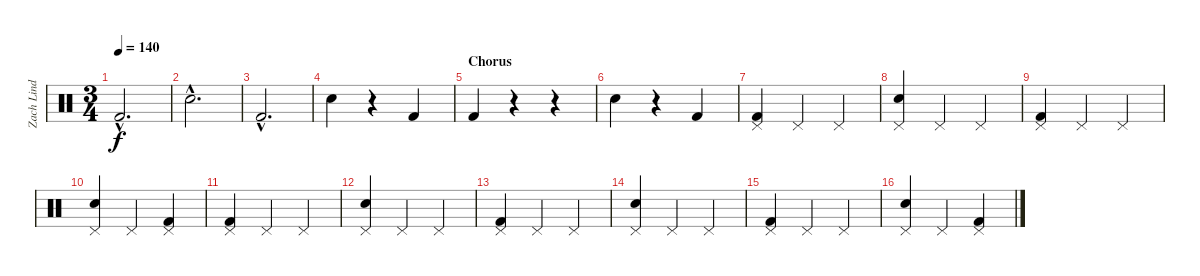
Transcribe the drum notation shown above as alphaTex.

\track ("Zach Lind - Drums" "Zach Lind ") {instrument percussion}
\staff {score}
\articulation defaults
\ts (3 4)
\tempo 140
\clef neutral
\ks c "Kick (hit) 2"{hac}.2{d dy f}
|
"Electric Snare (hit)"{hac}.2{d} |
"Kick (hit) 2"{hac}.2{d} |
"Electric Snare (hit)".4 r.4 "Kick (hit) 2".4 |
\section ("" "Chorus")
"Kick (hit) 2".4 r.4 r.4 |
"Electric Snare (hit)".4 r.4 "Kick (hit) 2".4 |
("Pedal Hi-Hat (hit)" "Kick (hit) 2").4 "Pedal Hi-Hat (hit)".4 "Pedal Hi-Hat (hit)".4 |
("Pedal Hi-Hat (hit)" "Electric Snare (hit)").4 "Pedal Hi-Hat (hit)".4 "Pedal Hi-Hat (hit)".4 |
("Pedal Hi-Hat (hit)" "Kick (hit) 2").4 "Pedal Hi-Hat (hit)".4 "Pedal Hi-Hat (hit)".4 |
("Pedal Hi-Hat (hit)" "Electric Snare (hit)").4 "Pedal Hi-Hat (hit)".4 ("Pedal Hi-Hat (hit)" "Kick (hit) 2").4 |
("Pedal Hi-Hat (hit)" "Kick (hit) 2").4 "Pedal Hi-Hat (hit)".4 "Pedal Hi-Hat (hit)".4 |
("Pedal Hi-Hat (hit)" "Electric Snare (hit)").4 "Pedal Hi-Hat (hit)".4 "Pedal Hi-Hat (hit)".4 |
("Pedal Hi-Hat (hit)" "Kick (hit) 2").4 "Pedal Hi-Hat (hit)".4 "Pedal Hi-Hat (hit)".4 |
("Pedal Hi-Hat (hit)" "Electric Snare (hit)").4 "Pedal Hi-Hat (hit)".4 "Pedal Hi-Hat (hit)".4 |
("Pedal Hi-Hat (hit)" "Kick (hit) 2").4 "Pedal Hi-Hat (hit)".4 "Pedal Hi-Hat (hit)".4 |
("Pedal Hi-Hat (hit)" "Electric Snare (hit)").4 "Pedal Hi-Hat (hit)".4 ("Pedal Hi-Hat (hit)" "Kick (hit) 2").4
